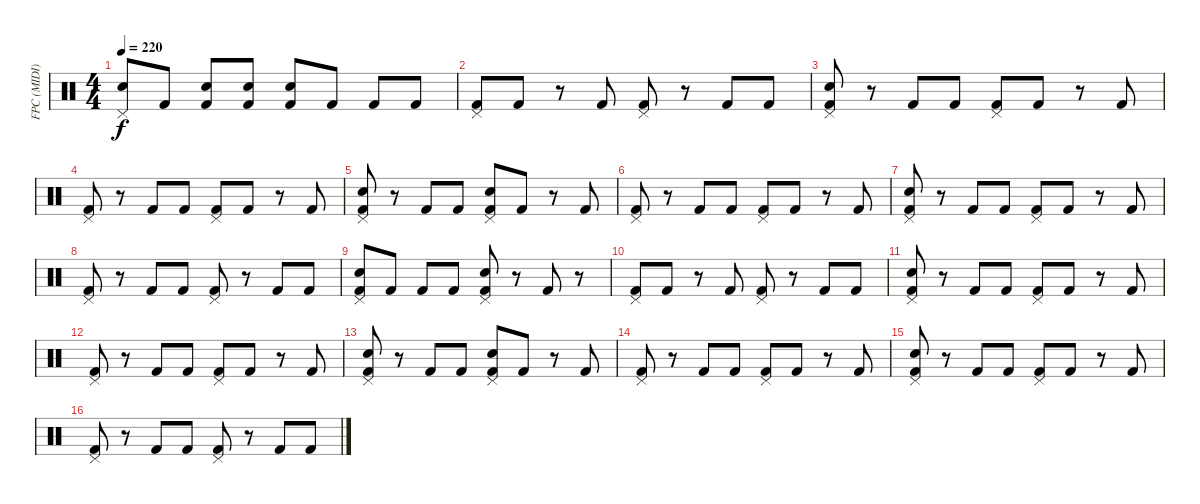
\track ("FPC (MIDI)" "FPC (MIDI)") {instrument percussion}
\staff {score}
\articulation defaults
\ts (4 4)
\tempo 220
\clef neutral
\ks c
("Pedal Hi-Hat (hit)" "Snare (hit) 2").8{dy f} "Kick (hit) 2".8 ("Snare (hit) 2" "Kick (hit) 2").8 ("Snare (hit) 2" "Kick (hit) 2").8 ("Kick (hit) 2" "Snare (hit) 2").8 "Kick (hit) 2".8 "Kick (hit) 2".8 "Kick (hit) 2".8 |
("Pedal Hi-Hat (hit)" "Kick (hit) 2").8 "Kick (hit) 2".8 r.8 "Kick (hit) 2".8 ("Kick (hit) 2" "Pedal Hi-Hat (hit)").8 r.8 "Kick (hit) 2".8 "Kick (hit) 2".8 |
("Kick (hit) 2" "Snare (hit) 2" "Pedal Hi-Hat (hit)").8 r.8 "Kick (hit) 2".8 "Kick (hit) 2".8 ("Kick (hit) 2" "Pedal Hi-Hat (hit)").8 "Kick (hit) 2".8 r.8 "Kick (hit) 2".8 |
("Pedal Hi-Hat (hit)" "Kick (hit) 2").8 r.8 "Kick (hit) 2".8 "Kick (hit) 2".8 ("Kick (hit) 2" "Pedal Hi-Hat (hit)").8 "Kick (hit) 2".8 r.8 "Kick (hit) 2".8 |
("Kick (hit) 2" "Snare (hit) 2" "Pedal Hi-Hat (hit)").8 r.8 "Kick (hit) 2".8 "Kick (hit) 2".8 ("Snare (hit) 2" "Pedal Hi-Hat (hit)" "Kick (hit) 2").8 "Kick (hit) 2".8 r.8 "Kick (hit) 2".8 |
("Kick (hit) 2" "Pedal Hi-Hat (hit)").8 r.8 "Kick (hit) 2".8 "Kick (hit) 2".8 ("Kick (hit) 2" "Pedal Hi-Hat (hit)").8 "Kick (hit) 2".8 r.8 "Kick (hit) 2".8 |
("Kick (hit) 2" "Snare (hit) 2" "Pedal Hi-Hat (hit)").8 r.8 "Kick (hit) 2".8 "Kick (hit) 2".8 ("Pedal Hi-Hat (hit)" "Kick (hit) 2").8 "Kick (hit) 2".8 r.8 "Kick (hit) 2".8 |
("Pedal Hi-Hat (hit)" "Kick (hit) 2").8 r.8 "Kick (hit) 2".8 "Kick (hit) 2".8 ("Kick (hit) 2" "Pedal Hi-Hat (hit)").8 r.8 "Kick (hit) 2".8 "Kick (hit) 2".8 |
("Kick (hit) 2" "Snare (hit) 2" "Pedal Hi-Hat (hit)").8 "Kick (hit) 2".8 "Kick (hit) 2".8 "Kick (hit) 2".8 ("Snare (hit) 2" "Pedal Hi-Hat (hit)" "Kick (hit) 2").8 r.8 "Kick (hit) 2".8 r.8 |
("Pedal Hi-Hat (hit)" "Kick (hit) 2").8 "Kick (hit) 2".8 r.8 "Kick (hit) 2".8 ("Kick (hit) 2" "Pedal Hi-Hat (hit)").8 r.8 "Kick (hit) 2".8 "Kick (hit) 2".8 |
("Kick (hit) 2" "Snare (hit) 2" "Pedal Hi-Hat (hit)").8 r.8 "Kick (hit) 2".8 "Kick (hit) 2".8 ("Kick (hit) 2" "Pedal Hi-Hat (hit)").8 "Kick (hit) 2".8 r.8 "Kick (hit) 2".8 |
("Pedal Hi-Hat (hit)" "Kick (hit) 2").8 r.8 "Kick (hit) 2".8 "Kick (hit) 2".8 ("Kick (hit) 2" "Pedal Hi-Hat (hit)").8 "Kick (hit) 2".8 r.8 "Kick (hit) 2".8 |
("Kick (hit) 2" "Snare (hit) 2" "Pedal Hi-Hat (hit)").8 r.8 "Kick (hit) 2".8 "Kick (hit) 2".8 ("Snare (hit) 2" "Pedal Hi-Hat (hit)" "Kick (hit) 2").8 "Kick (hit) 2".8 r.8 "Kick (hit) 2".8 |
("Kick (hit) 2" "Pedal Hi-Hat (hit)").8 r.8 "Kick (hit) 2".8 "Kick (hit) 2".8 ("Kick (hit) 2" "Pedal Hi-Hat (hit)").8 "Kick (hit) 2".8 r.8 "Kick (hit) 2".8 |
("Kick (hit) 2" "Snare (hit) 2" "Pedal Hi-Hat (hit)").8 r.8 "Kick (hit) 2".8 "Kick (hit) 2".8 ("Pedal Hi-Hat (hit)" "Kick (hit) 2").8 "Kick (hit) 2".8 r.8 "Kick (hit) 2".8 |
("Pedal Hi-Hat (hit)" "Kick (hit) 2").8 r.8 "Kick (hit) 2".8 "Kick (hit) 2".8 ("Kick (hit) 2" "Pedal Hi-Hat (hit)").8 r.8 "Kick (hit) 2".8 "Kick (hit) 2".8
